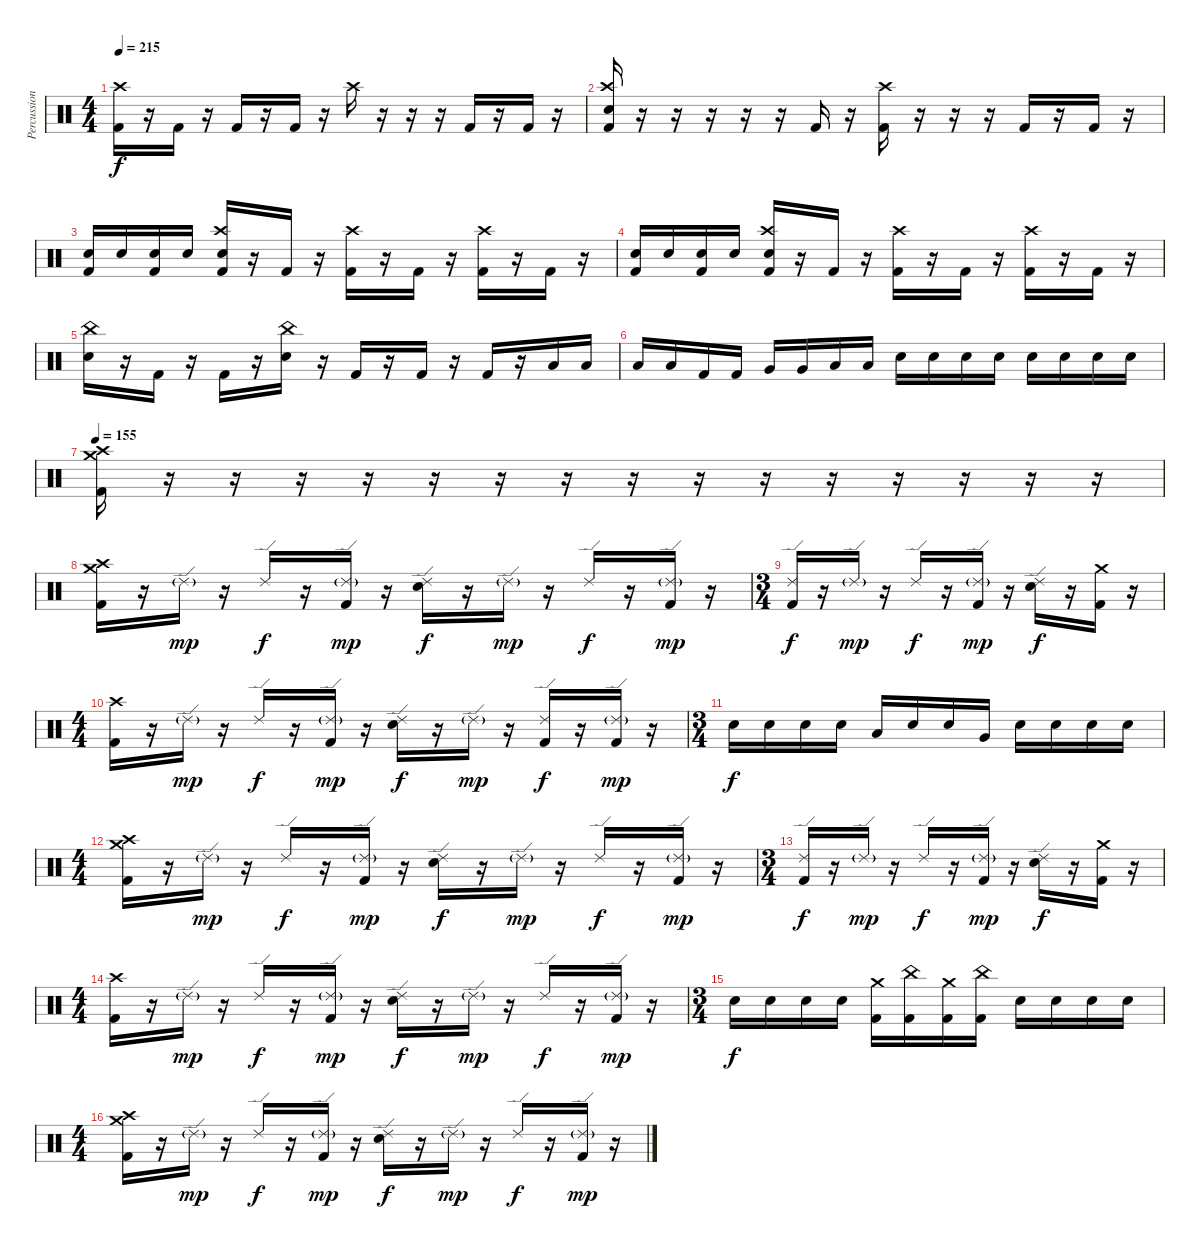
\track ("Percussion" "Percussion") {instrument percussion}
\staff {score}
\articulation defaults
\ts (4 4)
\tempo 215
\clef neutral
\ks c
("Kick (hit) 2" "Crash high (hit)").16{dy f} r.16 "Kick (hit) 2".16 r.16 "Kick (hit) 2".16 r.16 "Kick (hit) 2".16 r.16 "Crash high (hit)".16 r.16 r.16 r.16 "Kick (hit) 2".16 r.16 "Kick (hit) 2".16 r.16 |
("Kick (hit) 2" "Electric Snare (hit)" "Crash high (hit)").16 r.16 r.16 r.16 r.16 r.16 "Kick (hit) 2".16 r.16 ("Kick (hit) 2" "Crash high (hit)").16 r.16 r.16 r.16 "Kick (hit) 2".16 r.16 "Kick (hit) 2".16 r.16 |
("Kick (hit) 2" "Electric Snare (hit)").16 "Electric Snare (hit)".16 ("Kick (hit) 2" "Electric Snare (hit)").16 "Electric Snare (hit)".16 ("Kick (hit) 2" "Electric Snare (hit)" "Crash high (hit)").16 r.16 "Kick (hit) 2".16 r.16 ("Kick (hit) 2" "Crash high (hit)").16 r.16 "Kick (hit) 2".16 r.16 ("Kick (hit) 2" "Crash high (hit)").16 r.16 "Kick (hit) 2".16 r.16 |
("Kick (hit) 2" "Electric Snare (hit)").16 "Electric Snare (hit)".16 ("Kick (hit) 2" "Electric Snare (hit)").16 "Electric Snare (hit)".16 ("Kick (hit) 2" "Electric Snare (hit)" "Crash high (hit)").16 r.16 "Kick (hit) 2".16 r.16 ("Kick (hit) 2" "Crash high (hit)").16 r.16 "Kick (hit) 2".16 r.16 ("Kick (hit) 2" "Crash high (hit)").16 r.16 "Kick (hit) 2".16 r.16 |
("Electric Snare (hit)" "China (hit)").16 r.16 "Kick (hit) 2".16 r.16 "Kick (hit) 2".16 r.16 ("Electric Snare (hit)" "China (hit)").16 r.16 "Kick (hit) 2".16 r.16 "Kick (hit) 2".16 r.16 "Kick (hit) 2".16 r.16 "Low Tom (hit)".16 "Low Tom (hit)".16 |
"Low Tom (hit)".16 "Low Tom (hit)".16 "Kick (hit) 2".16 "Kick (hit) 2".16 "Very Low Tom (hit)".16 "Very Low Tom (hit)".16 "Low Floor Tom (hit)".16 "Low Floor Tom (hit)".16 "Electric Snare (hit)".16 "Electric Snare (hit)".16 "Electric Snare (hit)".16 "Electric Snare (hit)".16 "Electric Snare (hit)".16 "Electric Snare (hit)".16 "Electric Snare (hit)".16 "Electric Snare (hit)".16 |
\tempo 155
("Kick (hit) 2" "Crash medium (hit)" "Crash high (hit)").16 r.16 r.16 r.16 r.16 r.16 r.16 r.16 r.16 r.16 r.16 r.16 r.16 r.16 r.16 r.16 |
("Kick (hit) 2" "Crash medium (hit)" "Crash high (hit)").16 r.16 "Ride (edge) 2"{g}.16{dy mp} r.16 "Ride (edge) 2".16{dy f} r.16 ("Kick (hit) 2" "Ride (edge) 2"{g}).16{dy mp} r.16 ("Electric Snare (hit)" "Ride (edge) 2").16{dy f} r.16 "Ride (edge) 2"{g}.16{dy mp} r.16 "Ride (edge) 2".16{dy f} r.16 ("Kick (hit) 2" "Ride (edge) 2"{g}).16{dy mp} r.16 |
\ts (3 4)
("Kick (hit) 2" "Ride (edge) 2").16{dy f} r.16 "Ride (edge) 2"{g}.16{dy mp} r.16 "Ride (edge) 2".16{dy f} r.16 ("Kick (hit) 2" "Ride (edge) 2"{g}).16{dy mp} r.16 ("Electric Snare (hit)" "Ride (edge) 2").16{dy f} r.16 ("Kick (hit) 2" "Crash medium (hit)").16 r.16 |
\ts (4 4)
("Kick (hit) 2" "Crash high (hit)").16 r.16 "Ride (edge) 2"{g}.16{dy mp} r.16 "Ride (edge) 2".16{dy f} r.16 ("Kick (hit) 2" "Ride (edge) 2"{g}).16{dy mp} r.16 ("Electric Snare (hit)" "Ride (edge) 2").16{dy f} r.16 "Ride (edge) 2"{g}.16{dy mp} r.16 ("Kick (hit) 2" "Ride (edge) 2").16{dy f} r.16 ("Kick (hit) 2" "Ride (edge) 2"{g}).16{dy mp} r.16 |
\ts (3 4)
"Electric Snare (hit)".16{dy f} "Electric Snare (hit)".16 "Electric Snare (hit)".16 "Electric Snare (hit)".16 "Low Tom (hit)".16 "Electric Snare (hit)".16 "Electric Snare (hit)".16 "Very Low Tom (hit)".16 "Electric Snare (hit)".16 "Electric Snare (hit)".16 "Electric Snare (hit)".16 "Electric Snare (hit)".16 |
\ts (4 4)
("Kick (hit) 2" "Crash medium (hit)" "Crash high (hit)").16 r.16 "Ride (edge) 2"{g}.16{dy mp} r.16 "Ride (edge) 2".16{dy f} r.16 ("Kick (hit) 2" "Ride (edge) 2"{g}).16{dy mp} r.16 ("Electric Snare (hit)" "Ride (edge) 2").16{dy f} r.16 "Ride (edge) 2"{g}.16{dy mp} r.16 "Ride (edge) 2".16{dy f} r.16 ("Kick (hit) 2" "Ride (edge) 2"{g}).16{dy mp} r.16 |
\ts (3 4)
("Kick (hit) 2" "Ride (edge) 2").16{dy f} r.16 "Ride (edge) 2"{g}.16{dy mp} r.16 "Ride (edge) 2".16{dy f} r.16 ("Kick (hit) 2" "Ride (edge) 2"{g}).16{dy mp} r.16 ("Electric Snare (hit)" "Ride (edge) 2").16{dy f} r.16 ("Kick (hit) 2" "Crash medium (hit)").16 r.16 |
\ts (4 4)
("Kick (hit) 2" "Crash high (hit)").16 r.16 "Ride (edge) 2"{g}.16{dy mp} r.16 "Ride (edge) 2".16{dy f} r.16 ("Kick (hit) 2" "Ride (edge) 2"{g}).16{dy mp} r.16 ("Electric Snare (hit)" "Ride (edge) 2").16{dy f} r.16 "Ride (edge) 2"{g}.16{dy mp} r.16 "Ride (edge) 2".16{dy f} r.16 ("Kick (hit) 2" "Ride (edge) 2"{g}).16{dy mp} r.16 |
\ts (3 4)
"Electric Snare (hit)".16{dy f} "Electric Snare (hit)".16 "Electric Snare (hit)".16 "Electric Snare (hit)".16 ("Kick (hit) 2" "Crash medium (hit)").16 ("Kick (hit) 2" "China (hit)").16 ("Kick (hit) 2" "Crash medium (hit)").16 ("Kick (hit) 2" "China (hit)").16 "Electric Snare (hit)".16 "Electric Snare (hit)".16 "Electric Snare (hit)".16 "Electric Snare (hit)".16 |
\ts (4 4)
("Kick (hit) 2" "Crash medium (hit)" "Crash high (hit)").16 r.16 "Ride (edge) 2"{g}.16{dy mp} r.16 "Ride (edge) 2".16{dy f} r.16 ("Kick (hit) 2" "Ride (edge) 2"{g}).16{dy mp} r.16 ("Electric Snare (hit)" "Ride (edge) 2").16{dy f} r.16 "Ride (edge) 2"{g}.16{dy mp} r.16 "Ride (edge) 2".16{dy f} r.16 ("Kick (hit) 2" "Ride (edge) 2"{g}).16{dy mp} r.16
